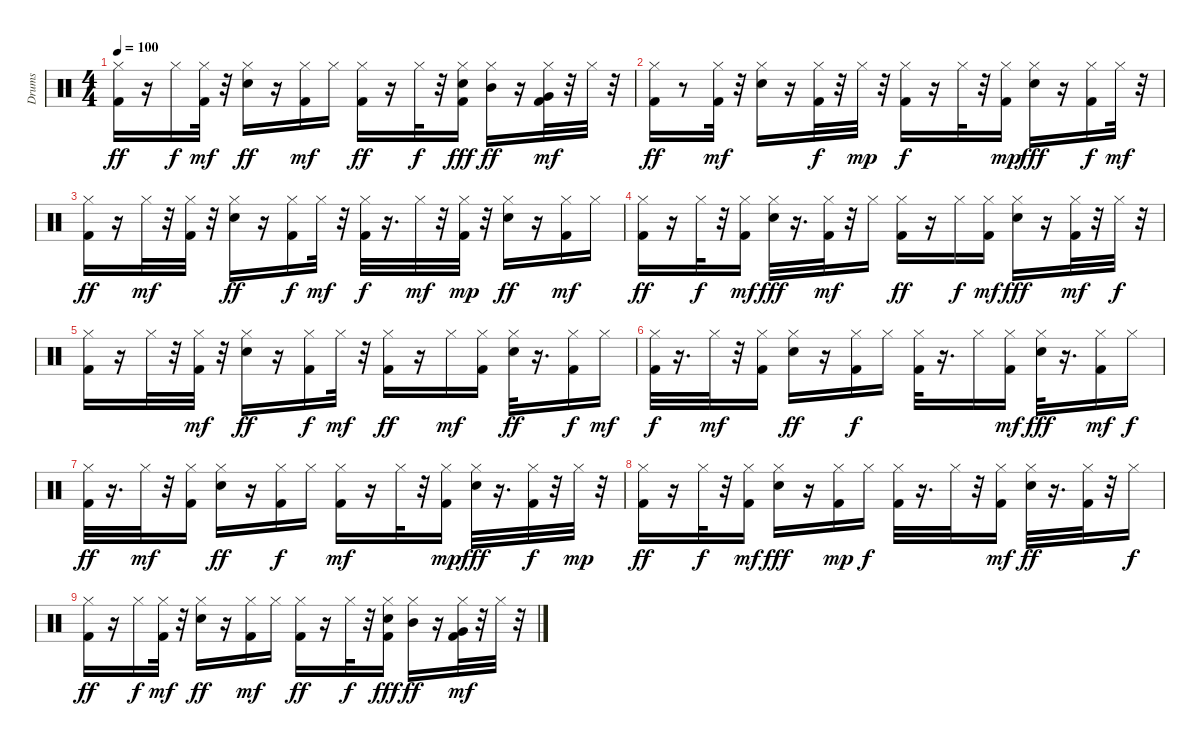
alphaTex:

\track ("Drums" "Drums") {instrument percussion}
\staff {score}
\articulation defaults
\ts (4 4)
\tempo 100
\clef neutral
\ks c
("Hi-Hat (closed)" "Kick (hit) 2").16{dy ff} r.16 "Hi-Hat (closed)".16{dy f} ("Kick (hit) 2" "Hi-Hat (closed)").32{dy mf} r.32 ("Hi-Hat (closed)" "Snare (hit) 2").16{dy ff} r.16 ("Hi-Hat (closed)" "Kick (hit) 2").16{dy mf} "Hi-Hat (closed)".16 ("Hi-Hat (closed)" "Kick (hit) 2").16{dy ff} r.16 "Hi-Hat (closed)".32{dy f} r.32 ("Hi-Hat (closed)" "Kick (hit) 2" "Snare (hit) 2").16{dy fff} ("Hi-Hat (closed)" "Mid Tom (hit)").16{dy ff} r.16 ("Kick (hit) 2" "Hi-Hat (closed)" "Very Low Tom (hit)").32{dy mf} r.32 "Hi-Hat (closed)".32 r.32 |
("Kick (hit) 2" "Hi-Hat (closed)").16{dy ff} r.8 ("Hi-Hat (closed)" "Kick (hit) 2").32{dy mf} r.32 ("Snare (hit) 2" "Hi-Hat (closed)").16 r.16 ("Kick (hit) 2" "Hi-Hat (closed)").32{dy f} r.32 "Hi-Hat (closed)".32{dy mp} r.32 ("Kick (hit) 2" "Hi-Hat (closed)").16{dy f} r.16 "Hi-Hat (closed)".32 r.32 ("Kick (hit) 2" "Hi-Hat (closed)").16{dy mp} ("Hi-Hat (closed)" "Snare (hit) 2").16{dy fff} r.16 ("Kick (hit) 2" "Hi-Hat (closed)").16{dy f} "Hi-Hat (closed)".32{dy mf} r.32 |
("Kick (hit) 2" "Hi-Hat (closed)").16{dy ff} r.16 "Hi-Hat (closed)".32{dy mf} r.32 ("Kick (hit) 2" "Hi-Hat (closed)").32 r.32 ("Hi-Hat (closed)" "Snare (hit) 2").16{dy ff} r.16 ("Kick (hit) 2" "Hi-Hat (closed)").16{dy f} "Hi-Hat (closed)".32{dy mf} r.32 ("Kick (hit) 2" "Hi-Hat (closed)").32{dy f} r.16{d} "Hi-Hat (closed)".32{dy mf} r.32 ("Kick (hit) 2" "Hi-Hat (closed)").32{dy mp} r.32 ("Hi-Hat (closed)" "Snare (hit) 2").16{dy ff} r.16 ("Hi-Hat (closed)" "Kick (hit) 2").16{dy mf} "Hi-Hat (closed)".16 |
("Hi-Hat (closed)" "Kick (hit) 2").16{dy ff} r.16 "Hi-Hat (closed)".32{dy f} r.32 ("Kick (hit) 2" "Hi-Hat (closed)").16{dy mf} ("Hi-Hat (closed)" "Snare (hit) 2").32{dy fff} r.16{d} ("Kick (hit) 2" "Hi-Hat (closed)").32{dy mf} r.32 "Hi-Hat (closed)".16 ("Hi-Hat (closed)" "Kick (hit) 2").16{dy ff} r.16 "Hi-Hat (closed)".16{dy f} ("Kick (hit) 2" "Hi-Hat (closed)").16{dy mf} ("Hi-Hat (closed)" "Snare (hit) 2").16{dy fff} r.16 ("Kick (hit) 2" "Hi-Hat (closed)").32{dy mf} r.32 "Hi-Hat (closed)".32{dy f} r.32 |
("Hi-Hat (closed)" "Kick (hit) 2").16 r.16 "Hi-Hat (closed)".32 r.32 ("Kick (hit) 2" "Hi-Hat (closed)").32{dy mf} r.32 ("Hi-Hat (closed)" "Snare (hit) 2").16{dy ff} r.16 ("Kick (hit) 2" "Hi-Hat (closed)").16{dy f} "Hi-Hat (closed)".32{dy mf} r.32 ("Kick (hit) 2" "Hi-Hat (closed)").16{dy ff} r.16 "Hi-Hat (closed)".16{dy mf} ("Kick (hit) 2" "Hi-Hat (closed)").16 ("Hi-Hat (closed)" "Snare (hit) 2").32{dy ff} r.16{d} ("Kick (hit) 2" "Hi-Hat (closed)").16{dy f} "Hi-Hat (closed)".16{dy mf} |
("Kick (hit) 2" "Hi-Hat (closed)").32{dy f} r.16{d} "Hi-Hat (closed)".32{dy mf} r.32 ("Kick (hit) 2" "Hi-Hat (closed)").16 ("Hi-Hat (closed)" "Snare (hit) 2").16{dy ff} r.16 ("Kick (hit) 2" "Hi-Hat (closed)").16{dy f} "Hi-Hat (closed)".16 ("Kick (hit) 2" "Hi-Hat (closed)").32 r.16{d} "Hi-Hat (closed)".16 ("Kick (hit) 2" "Hi-Hat (closed)").16{dy mf} ("Hi-Hat (closed)" "Snare (hit) 2").32{dy fff} r.16{d} ("Kick (hit) 2" "Hi-Hat (closed)").16{dy mf} "Hi-Hat (closed)".16{dy f} |
("Kick (hit) 2" "Hi-Hat (closed)").32{dy ff} r.16{d} "Hi-Hat (closed)".32{dy mf} r.32 ("Kick (hit) 2" "Hi-Hat (closed)").16 ("Hi-Hat (closed)" "Snare (hit) 2").16{dy ff} r.16 ("Kick (hit) 2" "Hi-Hat (closed)").16{dy f} "Hi-Hat (closed)".16 ("Hi-Hat (closed)" "Kick (hit) 2").16{dy mf} r.16 "Hi-Hat (closed)".32 r.32 ("Kick (hit) 2" "Hi-Hat (closed)").16{dy mp} ("Hi-Hat (closed)" "Snare (hit) 2").32{dy fff} r.16{d} ("Kick (hit) 2" "Hi-Hat (closed)").32{dy f} r.32 "Hi-Hat (closed)".32{dy mp} r.32 |
("Kick (hit) 2" "Hi-Hat (closed)").16{dy ff} r.16 "Hi-Hat (closed)".32{dy f} r.32 ("Hi-Hat (closed)" "Kick (hit) 2").16{dy mf} ("Hi-Hat (closed)" "Snare (hit) 2").16{dy fff} r.16 ("Kick (hit) 2" "Hi-Hat (closed)").16{dy mp} "Hi-Hat (closed)".16{dy f} ("Kick (hit) 2" "Hi-Hat (closed)").32 r.16{d} "Hi-Hat (closed)".32 r.32 ("Kick (hit) 2" "Hi-Hat (closed)").16{dy mf} ("Hi-Hat (closed)" "Snare (hit) 2").32{dy ff} r.16{d} ("Kick (hit) 2" "Hi-Hat (closed)").32 r.32 "Hi-Hat (closed)".16{dy f} |
("Hi-Hat (closed)" "Kick (hit) 2").16{dy ff} r.16 "Hi-Hat (closed)".16{dy f} ("Kick (hit) 2" "Hi-Hat (closed)").32{dy mf} r.32 ("Hi-Hat (closed)" "Snare (hit) 2").16{dy ff} r.16 ("Hi-Hat (closed)" "Kick (hit) 2").16{dy mf} "Hi-Hat (closed)".16 ("Hi-Hat (closed)" "Kick (hit) 2").16{dy ff} r.16 "Hi-Hat (closed)".32{dy f} r.32 ("Hi-Hat (closed)" "Kick (hit) 2" "Snare (hit) 2").16{dy fff} ("Hi-Hat (closed)" "Mid Tom (hit)").16{dy ff} r.16 ("Kick (hit) 2" "Hi-Hat (closed)" "Very Low Tom (hit)").32{dy mf} r.32 "Hi-Hat (closed)".32 r.32
